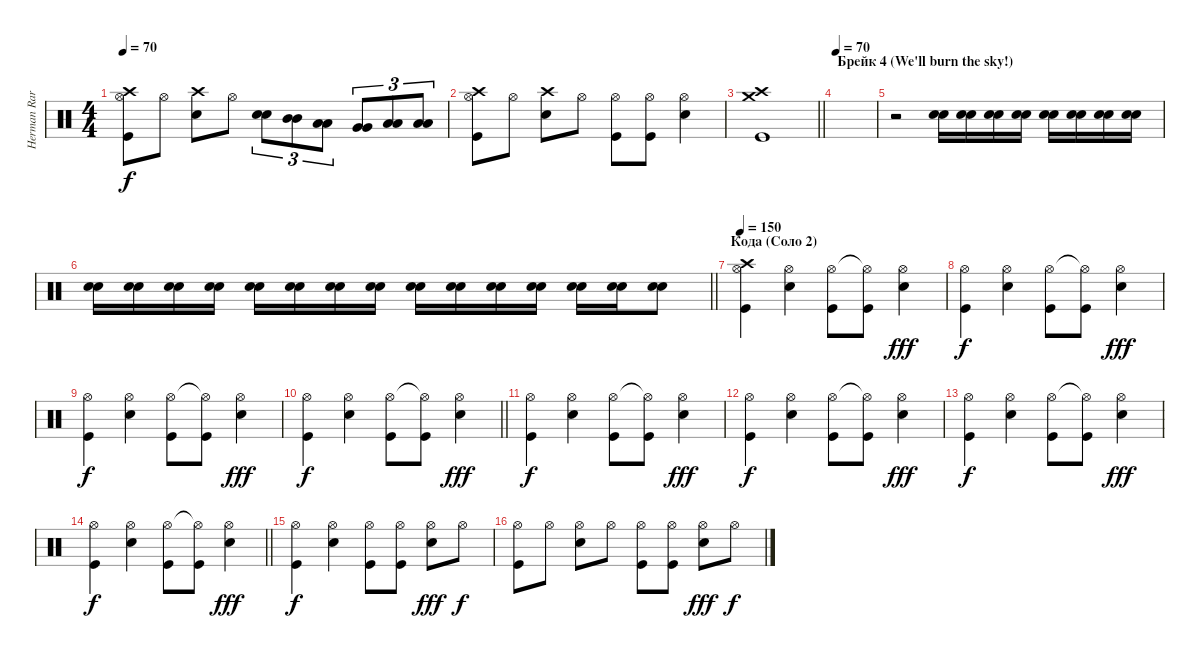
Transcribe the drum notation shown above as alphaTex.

\track ("Herman Rarebell" "Herman Rar") {instrument percussion}
\staff {score}
\articulation defaults
\ts (4 4)
\tempo 70
\clef neutral
\ks c
("Hi-Hat (open)" "Crash high (hit)" "Kick (hit)").8{dy f} "Hi-Hat (open)".8 ("Crash high (hit)" "Snare (hit) 2").8 "Hi-Hat (open)".8 ("Snare (hit) 2" "Snare (hit) 2").8{tu (3 2)} ("Mid Tom (hit)" "Mid Tom (hit)").8{tu (3 2)} ("Low Tom (hit)" "Low Tom (hit)").8{tu (3 2)} ("Very Low Tom (hit)" "Very Low Tom (hit)").8{tu (3 2)} ("Low Floor Tom (hit)" "Low Floor Tom (hit)").8{tu (3 2)} ("Low Floor Tom (hit)" "Low Floor Tom (hit)").8{tu (3 2)} |
("Hi-Hat (open)" "Crash high (hit)" "Kick (hit)").8 "Hi-Hat (open)".8 ("Crash high (hit)" "Snare (hit) 2").8 "Hi-Hat (open)".8 ("Hi-Hat (open)" "Kick (hit)").8 ("Hi-Hat (open)" "Kick (hit)").8 ("Hi-Hat (open)" "Snare (hit) 2").4 |
\barLineRight lightlight
("Crash high (hit)" "Crash medium (hit)" "Kick (hit)").1 |
\section ("" "Брейк 4 (We'll burn the sky!)")
\tempo 70
|
r.2 ("Snare (hit) 2" "Snare (hit) 2").16{volume 14} ("Snare (hit) 2" "Snare (hit) 2").16 ("Snare (hit) 2" "Snare (hit) 2").16 ("Snare (hit) 2" "Snare (hit) 2").16 ("Snare (hit) 2" "Snare (hit) 2").16 ("Snare (hit) 2" "Snare (hit) 2").16 ("Snare (hit) 2" "Snare (hit) 2").16 ("Snare (hit) 2" "Snare (hit) 2").16 |
\barLineRight lightlight
("Snare (hit) 2" "Snare (hit) 2").16 ("Snare (hit) 2" "Snare (hit) 2").16 ("Snare (hit) 2" "Snare (hit) 2").16 ("Snare (hit) 2" "Snare (hit) 2").16 ("Snare (hit) 2" "Snare (hit) 2").16 ("Snare (hit) 2" "Snare (hit) 2").16 ("Snare (hit) 2" "Snare (hit) 2").16 ("Snare (hit) 2" "Snare (hit) 2").16 ("Snare (hit) 2" "Snare (hit) 2").16 ("Snare (hit) 2" "Snare (hit) 2").16 ("Snare (hit) 2" "Snare (hit) 2").16 ("Snare (hit) 2" "Snare (hit) 2").16 ("Snare (hit) 2" "Snare (hit) 2").16 ("Snare (hit) 2" "Snare (hit) 2").16 ("Electric Snare (hit)" "Electric Snare (hit)").8 |
\section ("" "Кода (Соло 2)")
\tempo 150
("Hi-Hat (open)" "Crash high (hit)" "Kick (hit)").4 ("Hi-Hat (open)" "Snare (hit) 2").4 ("Hi-Hat (open)" "Kick (hit)").8 ("Hi-Hat (open)"{t} "Kick (hit)").8 ("Hi-Hat (open)" "Snare (hit) 2").4{dy fff} |
("Hi-Hat (open)" "Kick (hit)").4{dy f} ("Hi-Hat (open)" "Snare (hit) 2").4 ("Hi-Hat (open)" "Kick (hit)").8 ("Hi-Hat (open)"{t} "Kick (hit)").8 ("Hi-Hat (open)" "Snare (hit) 2").4{dy fff} |
("Hi-Hat (open)" "Kick (hit)").4{dy f} ("Hi-Hat (open)" "Snare (hit) 2").4 ("Hi-Hat (open)" "Kick (hit)").8 ("Hi-Hat (open)"{t} "Kick (hit)").8 ("Hi-Hat (open)" "Snare (hit) 2").4{dy fff} |
\barLineRight lightlight
("Hi-Hat (open)" "Kick (hit)").4{dy f} ("Hi-Hat (open)" "Snare (hit) 2").4 ("Hi-Hat (open)" "Kick (hit)").8 ("Hi-Hat (open)"{t} "Kick (hit)").8 ("Hi-Hat (open)" "Snare (hit) 2").4{dy fff} |
("Hi-Hat (open)" "Kick (hit)").4{dy f} ("Hi-Hat (open)" "Snare (hit) 2").4 ("Hi-Hat (open)" "Kick (hit)").8 ("Hi-Hat (open)"{t} "Kick (hit)").8 ("Hi-Hat (open)" "Snare (hit) 2").4{dy fff} |
("Hi-Hat (open)" "Kick (hit)").4{dy f} ("Hi-Hat (open)" "Snare (hit) 2").4 ("Hi-Hat (open)" "Kick (hit)").8 ("Hi-Hat (open)"{t} "Kick (hit)").8 ("Hi-Hat (open)" "Snare (hit) 2").4{dy fff} |
("Hi-Hat (open)" "Kick (hit)").4{dy f} ("Hi-Hat (open)" "Snare (hit) 2").4 ("Hi-Hat (open)" "Kick (hit)").8 ("Hi-Hat (open)"{t} "Kick (hit)").8 ("Hi-Hat (open)" "Snare (hit) 2").4{dy fff} |
\barLineRight lightlight
("Hi-Hat (open)" "Kick (hit)").4{dy f} ("Hi-Hat (open)" "Snare (hit) 2").4 ("Hi-Hat (open)" "Kick (hit)").8 ("Hi-Hat (open)"{t} "Kick (hit)").8 ("Hi-Hat (open)" "Snare (hit) 2").4{dy fff} |
("Hi-Hat (open)" "Kick (hit)").4{dy f} ("Hi-Hat (open)" "Snare (hit) 2").4 ("Hi-Hat (open)" "Kick (hit)").8 ("Hi-Hat (open)" "Kick (hit)").8 ("Hi-Hat (open)" "Snare (hit) 2").8{dy fff} "Hi-Hat (open)".8{dy f} |
("Hi-Hat (open)" "Kick (hit)").8 "Hi-Hat (open)".8 ("Hi-Hat (open)" "Snare (hit) 2").8 "Hi-Hat (open)".8 ("Hi-Hat (open)" "Kick (hit)").8 ("Hi-Hat (open)" "Kick (hit)").8 ("Hi-Hat (open)" "Snare (hit) 2").8{dy fff} "Hi-Hat (open)".8{dy f}
